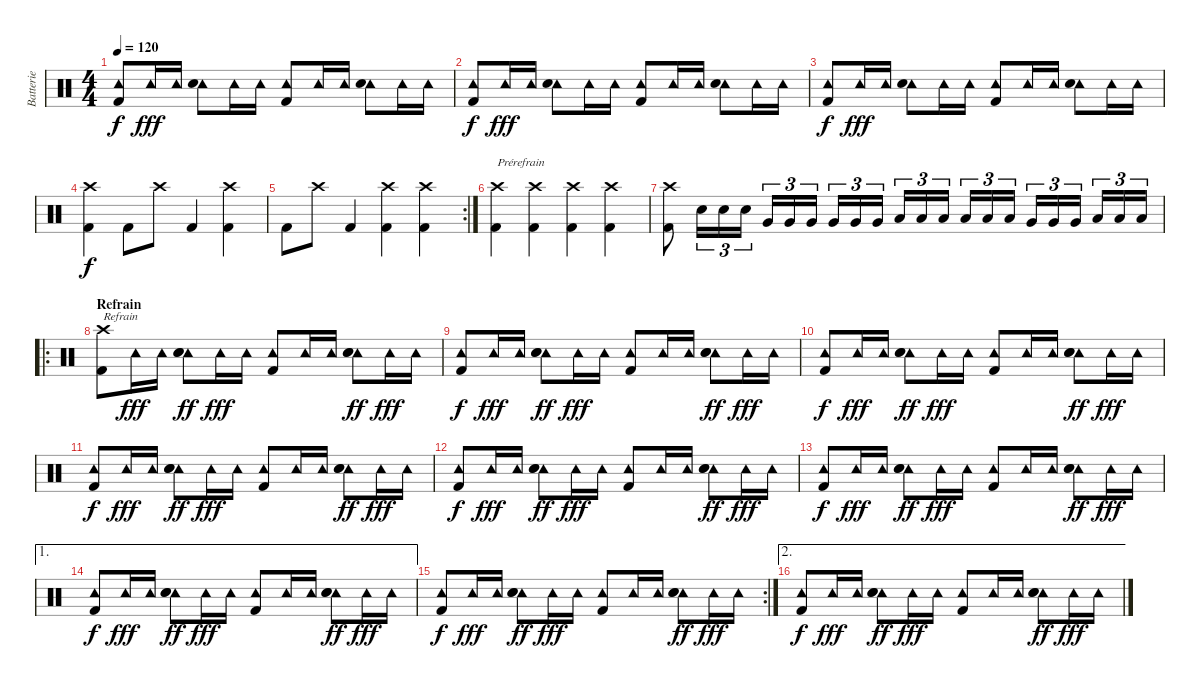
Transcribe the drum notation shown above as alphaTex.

\track ("Batterie" "Batterie") {instrument percussion}
\staff {score}
\articulation defaults
\ts (4 4)
\tempo 120
\clef neutral
\ks c
("Tambourine (hit)" "Kick (hit) 2").8{dy f} "Tambourine (hit)".16{dy fff} "Tambourine (hit)".16 ("Tambourine (hit)" "Electric Snare (hit)").8 "Tambourine (hit)".16 "Tambourine (hit)".16 ("Tambourine (hit)" "Kick (hit) 2").8 "Tambourine (hit)".16 "Tambourine (hit)".16 ("Tambourine (hit)" "Electric Snare (hit)").8 "Tambourine (hit)".16 "Tambourine (hit)".16 |
("Tambourine (hit)" "Kick (hit) 2").8{dy f} "Tambourine (hit)".16{dy fff} "Tambourine (hit)".16 ("Tambourine (hit)" "Electric Snare (hit)").8 "Tambourine (hit)".16 "Tambourine (hit)".16 ("Tambourine (hit)" "Kick (hit) 2").8 "Tambourine (hit)".16 "Tambourine (hit)".16 ("Tambourine (hit)" "Electric Snare (hit)").8 "Tambourine (hit)".16 "Tambourine (hit)".16 |
("Tambourine (hit)" "Kick (hit) 2").8{dy f} "Tambourine (hit)".16{dy fff} "Tambourine (hit)".16 ("Tambourine (hit)" "Electric Snare (hit)").8 "Tambourine (hit)".16 "Tambourine (hit)".16 ("Tambourine (hit)" "Kick (hit) 2").8 "Tambourine (hit)".16 "Tambourine (hit)".16 ("Tambourine (hit)" "Electric Snare (hit)").8 "Tambourine (hit)".16 "Tambourine (hit)".16 |
("Crash high (hit)" "Kick (hit) 2").4{dy f} "Kick (hit) 2".8 "Crash high (hit)".8 "Kick (hit) 2".4 ("Crash high (hit)" "Kick (hit) 2").4 |
\rc 2 "Kick (hit) 2".8 "Crash high (hit)".8 "Kick (hit) 2".4
("Crash high (hit)" "Kick (hit) 2").4 ("Crash high (hit)" "Kick (hit) 2").4 |
("Crash high (hit)" "Kick (hit) 2").4{txt "Prérefrain"} ("Crash high (hit)" "Kick (hit) 2").4 ("Crash high (hit)" "Kick (hit) 2").4 ("Crash high (hit)" "Kick (hit) 2").4 |
("Crash high (hit)" "Kick (hit) 2").8 "Electric Snare (hit)".16{tu (3 2)} "Electric Snare (hit)".16{tu (3 2)} "Electric Snare (hit)".16{tu (3 2)} "Very Low Tom (hit)".16{tu (3 2)} "Very Low Tom (hit)".16{tu (3 2)} "Very Low Tom (hit)".16{tu (3 2)} "Very Low Tom (hit)".16{tu (3 2)} "Very Low Tom (hit)".16{tu (3 2)} "Very Low Tom (hit)".16{tu (3 2)} "Low Tom (hit)".16{tu (3 2)} "Low Tom (hit)".16{tu (3 2)} "Low Tom (hit)".16{tu (3 2)} "Low Tom (hit)".16{tu (3 2)} "Low Tom (hit)".16{tu (3 2)} "Low Tom (hit)".16{tu (3 2)} "Very Low Tom (hit)".16{tu (3 2)} "Very Low Tom (hit)".16{tu (3 2)} "Very Low Tom (hit)".16{tu (3 2)} "Low Floor Tom (hit)".16{tu (3 2)} "Low Floor Tom (hit)".16{tu (3 2)} "Low Floor Tom (hit)".16{tu (3 2)} |
\ro
\section ("" "Refrain")
("Crash high (hit)" "Kick (hit) 2").8{txt "Refrain"} "Tambourine (hit)".16{dy fff} "Tambourine (hit)".16 ("Tambourine (hit)" "Electric Snare (hit)" "Hand Clap (hit)").8{dy ff} "Tambourine (hit)".16{dy fff} "Tambourine (hit)".16 ("Tambourine (hit)" "Kick (hit) 2").8 "Tambourine (hit)".16 "Tambourine (hit)".16 ("Tambourine (hit)" "Electric Snare (hit)" "Hand Clap (hit)").8{dy ff} "Tambourine (hit)".16{dy fff} "Tambourine (hit)".16 |
("Tambourine (hit)" "Kick (hit) 2").8{dy f} "Tambourine (hit)".16{dy fff} "Tambourine (hit)".16 ("Tambourine (hit)" "Electric Snare (hit)" "Hand Clap (hit)").8{dy ff} "Tambourine (hit)".16{dy fff} "Tambourine (hit)".16 ("Tambourine (hit)" "Kick (hit) 2").8 "Tambourine (hit)".16 "Tambourine (hit)".16 ("Tambourine (hit)" "Electric Snare (hit)" "Hand Clap (hit)").8{dy ff} "Tambourine (hit)".16{dy fff} "Tambourine (hit)".16 |
("Tambourine (hit)" "Kick (hit) 2").8{dy f} "Tambourine (hit)".16{dy fff} "Tambourine (hit)".16 ("Tambourine (hit)" "Electric Snare (hit)" "Hand Clap (hit)").8{dy ff} "Tambourine (hit)".16{dy fff} "Tambourine (hit)".16 ("Tambourine (hit)" "Kick (hit) 2").8 "Tambourine (hit)".16 "Tambourine (hit)".16 ("Tambourine (hit)" "Electric Snare (hit)" "Hand Clap (hit)").8{dy ff} "Tambourine (hit)".16{dy fff} "Tambourine (hit)".16 |
("Tambourine (hit)" "Kick (hit) 2").8{dy f} "Tambourine (hit)".16{dy fff} "Tambourine (hit)".16 ("Tambourine (hit)" "Electric Snare (hit)" "Hand Clap (hit)").8{dy ff} "Tambourine (hit)".16{dy fff} "Tambourine (hit)".16 ("Tambourine (hit)" "Kick (hit) 2").8 "Tambourine (hit)".16 "Tambourine (hit)".16 ("Tambourine (hit)" "Electric Snare (hit)" "Hand Clap (hit)").8{dy ff} "Tambourine (hit)".16{dy fff} "Tambourine (hit)".16 |
("Tambourine (hit)" "Kick (hit) 2").8{dy f} "Tambourine (hit)".16{dy fff} "Tambourine (hit)".16 ("Tambourine (hit)" "Electric Snare (hit)" "Hand Clap (hit)").8{dy ff} "Tambourine (hit)".16{dy fff} "Tambourine (hit)".16 ("Tambourine (hit)" "Kick (hit) 2").8 "Tambourine (hit)".16 "Tambourine (hit)".16 ("Tambourine (hit)" "Electric Snare (hit)" "Hand Clap (hit)").8{dy ff} "Tambourine (hit)".16{dy fff} "Tambourine (hit)".16 |
("Tambourine (hit)" "Kick (hit) 2").8{dy f} "Tambourine (hit)".16{dy fff} "Tambourine (hit)".16 ("Tambourine (hit)" "Electric Snare (hit)" "Hand Clap (hit)").8{dy ff} "Tambourine (hit)".16{dy fff} "Tambourine (hit)".16 ("Tambourine (hit)" "Kick (hit) 2").8 "Tambourine (hit)".16 "Tambourine (hit)".16 ("Tambourine (hit)" "Electric Snare (hit)" "Hand Clap (hit)").8{dy ff} "Tambourine (hit)".16{dy fff} "Tambourine (hit)".16 |
\ae 1
("Tambourine (hit)" "Kick (hit) 2").8{dy f} "Tambourine (hit)".16{dy fff} "Tambourine (hit)".16 ("Tambourine (hit)" "Electric Snare (hit)" "Hand Clap (hit)").8{dy ff} "Tambourine (hit)".16{dy fff} "Tambourine (hit)".16 ("Tambourine (hit)" "Kick (hit) 2").8 "Tambourine (hit)".16 "Tambourine (hit)".16 ("Tambourine (hit)" "Electric Snare (hit)" "Hand Clap (hit)").8{dy ff} "Tambourine (hit)".16{dy fff} "Tambourine (hit)".16 |
\rc 2
("Tambourine (hit)" "Kick (hit) 2").8{dy f} "Tambourine (hit)".16{dy fff} "Tambourine (hit)".16 ("Tambourine (hit)" "Electric Snare (hit)" "Hand Clap (hit)").8{dy ff} "Tambourine (hit)".16{dy fff} "Tambourine (hit)".16 ("Tambourine (hit)" "Kick (hit) 2").8 "Tambourine (hit)".16 "Tambourine (hit)".16 ("Tambourine (hit)" "Electric Snare (hit)" "Hand Clap (hit)").8{dy ff} "Tambourine (hit)".16{dy fff} "Tambourine (hit)".16 |
\ae 2
("Tambourine (hit)" "Kick (hit) 2").8{dy f volume 0} "Tambourine (hit)".16{dy fff} "Tambourine (hit)".16 ("Tambourine (hit)" "Electric Snare (hit)" "Hand Clap (hit)").8{dy ff} "Tambourine (hit)".16{dy fff} "Tambourine (hit)".16 ("Tambourine (hit)" "Kick (hit) 2").8 "Tambourine (hit)".16 "Tambourine (hit)".16 ("Tambourine (hit)" "Electric Snare (hit)" "Hand Clap (hit)").8{dy ff} "Tambourine (hit)".16{dy fff} "Tambourine (hit)".16
